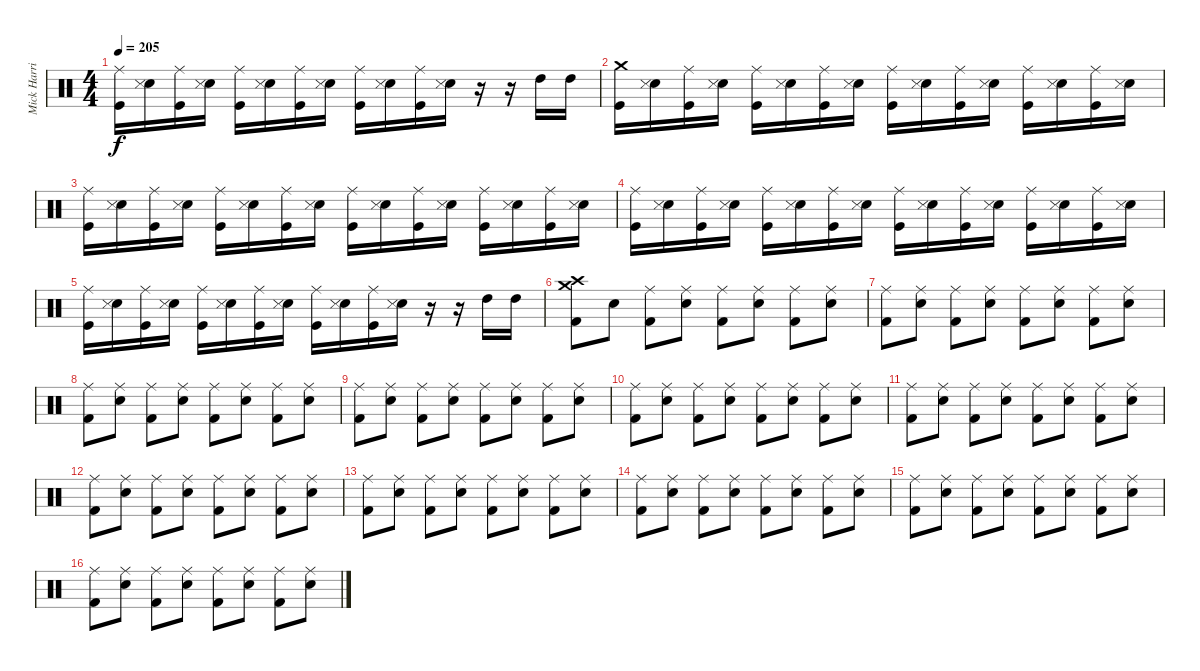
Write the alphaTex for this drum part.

\track ("Mick Harris (Drums)" "Mick Harri") {instrument percussion}
\staff {score}
\articulation defaults
\ts (4 4)
\tempo 205
\clef neutral
\ks c
("Kick (hit)" "Ride (middle)").16{dy f} ("Electric Snare (hit)" "Snare (side stick) 3").16 ("Kick (hit)" "Ride (middle)").16 ("Electric Snare (hit)" "Snare (side stick) 3").16 ("Kick (hit)" "Ride (middle)").16 ("Electric Snare (hit)" "Snare (side stick) 3").16 ("Kick (hit)" "Ride (middle)").16 ("Electric Snare (hit)" "Snare (side stick) 3").16 ("Kick (hit)" "Ride (middle)").16 ("Electric Snare (hit)" "Snare (side stick) 3").16 ("Kick (hit)" "Ride (middle)").16 ("Electric Snare (hit)" "Snare (side stick) 3").16 r.16 r.16 "High Tom (hit)".16 "High Tom (hit)".16 |
("Kick (hit)" "Crash medium (hit)").16 ("Electric Snare (hit)" "Snare (side stick) 3").16 ("Kick (hit)" "Ride (middle)").16 ("Electric Snare (hit)" "Snare (side stick) 3").16 ("Kick (hit)" "Ride (middle)").16 ("Electric Snare (hit)" "Snare (side stick) 3").16 ("Kick (hit)" "Ride (middle)").16 ("Electric Snare (hit)" "Snare (side stick) 3").16 ("Kick (hit)" "Ride (middle)").16 ("Electric Snare (hit)" "Snare (side stick) 3").16 ("Kick (hit)" "Ride (middle)").16 ("Electric Snare (hit)" "Snare (side stick) 3").16 ("Kick (hit)" "Ride (middle)").16 ("Electric Snare (hit)" "Snare (side stick) 3").16 ("Kick (hit)" "Ride (middle)").16 ("Electric Snare (hit)" "Snare (side stick) 3").16 |
("Kick (hit)" "Ride (middle)").16 ("Electric Snare (hit)" "Snare (side stick) 3").16 ("Kick (hit)" "Ride (middle)").16 ("Electric Snare (hit)" "Snare (side stick) 3").16 ("Kick (hit)" "Ride (middle)").16 ("Electric Snare (hit)" "Snare (side stick) 3").16 ("Kick (hit)" "Ride (middle)").16 ("Electric Snare (hit)" "Snare (side stick) 3").16 ("Kick (hit)" "Ride (middle)").16 ("Electric Snare (hit)" "Snare (side stick) 3").16 ("Kick (hit)" "Ride (middle)").16 ("Electric Snare (hit)" "Snare (side stick) 3").16 ("Kick (hit)" "Ride (middle)").16 ("Electric Snare (hit)" "Snare (side stick) 3").16 ("Kick (hit)" "Ride (middle)").16 ("Electric Snare (hit)" "Snare (side stick) 3").16 |
("Kick (hit)" "Ride (middle)").16 ("Electric Snare (hit)" "Snare (side stick) 3").16 ("Kick (hit)" "Ride (middle)").16 ("Electric Snare (hit)" "Snare (side stick) 3").16 ("Kick (hit)" "Ride (middle)").16 ("Electric Snare (hit)" "Snare (side stick) 3").16 ("Kick (hit)" "Ride (middle)").16 ("Electric Snare (hit)" "Snare (side stick) 3").16 ("Kick (hit)" "Ride (middle)").16 ("Electric Snare (hit)" "Snare (side stick) 3").16 ("Kick (hit)" "Ride (middle)").16 ("Electric Snare (hit)" "Snare (side stick) 3").16 ("Kick (hit)" "Ride (middle)").16 ("Electric Snare (hit)" "Snare (side stick) 3").16 ("Kick (hit)" "Ride (middle)").16 ("Electric Snare (hit)" "Snare (side stick) 3").16 |
("Kick (hit)" "Ride (middle)").16 ("Electric Snare (hit)" "Snare (side stick) 3").16 ("Kick (hit)" "Ride (middle)").16 ("Electric Snare (hit)" "Snare (side stick) 3").16 ("Kick (hit)" "Ride (middle)").16 ("Electric Snare (hit)" "Snare (side stick) 3").16 ("Kick (hit)" "Ride (middle)").16 ("Electric Snare (hit)" "Snare (side stick) 3").16 ("Kick (hit)" "Ride (middle)").16 ("Electric Snare (hit)" "Snare (side stick) 3").16 ("Kick (hit)" "Ride (middle)").16 ("Electric Snare (hit)" "Snare (side stick) 3").16 r.16 r.16 "High Tom (hit)".16 "High Tom (hit)".16 |
("Kick (hit) 2" "Crash high (hit)" "Crash medium (hit)").8 "Electric Snare (hit)".8 ("Kick (hit) 2" "Ride (middle)").8 ("Electric Snare (hit)" "Ride (middle)").8 ("Kick (hit) 2" "Ride (middle)").8 ("Electric Snare (hit)" "Ride (middle)").8 ("Kick (hit) 2" "Ride (middle)").8 ("Electric Snare (hit)" "Ride (middle)").8 |
("Kick (hit) 2" "Ride (middle)").8 ("Electric Snare (hit)" "Ride (middle)").8 ("Kick (hit) 2" "Ride (middle)").8 ("Electric Snare (hit)" "Ride (middle)").8 ("Kick (hit) 2" "Ride (middle)").8 ("Electric Snare (hit)" "Ride (middle)").8 ("Kick (hit) 2" "Ride (middle)").8 ("Electric Snare (hit)" "Ride (middle)").8 |
("Kick (hit) 2" "Ride (middle)").8 ("Electric Snare (hit)" "Ride (middle)").8 ("Kick (hit) 2" "Ride (middle)").8 ("Electric Snare (hit)" "Ride (middle)").8 ("Kick (hit) 2" "Ride (middle)").8 ("Electric Snare (hit)" "Ride (middle)").8 ("Kick (hit) 2" "Ride (middle)").8 ("Electric Snare (hit)" "Ride (middle)").8 |
("Kick (hit) 2" "Ride (middle)").8 ("Electric Snare (hit)" "Ride (middle)").8 ("Kick (hit) 2" "Ride (middle)").8 ("Electric Snare (hit)" "Ride (middle)").8 ("Kick (hit) 2" "Ride (middle)").8 ("Electric Snare (hit)" "Ride (middle)").8 ("Kick (hit) 2" "Ride (middle)").8 ("Electric Snare (hit)" "Ride (middle)").8 |
("Kick (hit) 2" "Ride (middle)").8 ("Electric Snare (hit)" "Ride (middle)").8 ("Kick (hit) 2" "Ride (middle)").8 ("Electric Snare (hit)" "Ride (middle)").8 ("Kick (hit) 2" "Ride (middle)").8 ("Electric Snare (hit)" "Ride (middle)").8 ("Kick (hit) 2" "Ride (middle)").8 ("Electric Snare (hit)" "Ride (middle)").8 |
("Kick (hit) 2" "Ride (middle)").8 ("Electric Snare (hit)" "Ride (middle)").8 ("Kick (hit) 2" "Ride (middle)").8 ("Electric Snare (hit)" "Ride (middle)").8 ("Kick (hit) 2" "Ride (middle)").8 ("Electric Snare (hit)" "Ride (middle)").8 ("Kick (hit) 2" "Ride (middle)").8 ("Electric Snare (hit)" "Ride (middle)").8 |
("Kick (hit) 2" "Ride (middle)").8 ("Electric Snare (hit)" "Ride (middle)").8 ("Kick (hit) 2" "Ride (middle)").8 ("Electric Snare (hit)" "Ride (middle)").8 ("Kick (hit) 2" "Ride (middle)").8 ("Electric Snare (hit)" "Ride (middle)").8 ("Kick (hit) 2" "Ride (middle)").8 ("Electric Snare (hit)" "Ride (middle)").8 |
("Kick (hit) 2" "Ride (middle)").8 ("Electric Snare (hit)" "Ride (middle)").8 ("Kick (hit) 2" "Ride (middle)").8 ("Electric Snare (hit)" "Ride (middle)").8 ("Kick (hit) 2" "Ride (middle)").8 ("Electric Snare (hit)" "Ride (middle)").8 ("Kick (hit) 2" "Ride (middle)").8 ("Electric Snare (hit)" "Ride (middle)").8 |
("Kick (hit) 2" "Ride (middle)").8 ("Electric Snare (hit)" "Ride (middle)").8 ("Kick (hit) 2" "Ride (middle)").8 ("Electric Snare (hit)" "Ride (middle)").8 ("Kick (hit) 2" "Ride (middle)").8 ("Electric Snare (hit)" "Ride (middle)").8 ("Kick (hit) 2" "Ride (middle)").8 ("Electric Snare (hit)" "Ride (middle)").8 |
("Kick (hit) 2" "Ride (middle)").8 ("Electric Snare (hit)" "Ride (middle)").8 ("Kick (hit) 2" "Ride (middle)").8 ("Electric Snare (hit)" "Ride (middle)").8 ("Kick (hit) 2" "Ride (middle)").8 ("Electric Snare (hit)" "Ride (middle)").8 ("Kick (hit) 2" "Ride (middle)").8 ("Electric Snare (hit)" "Ride (middle)").8 |
("Kick (hit) 2" "Ride (middle)").8 ("Electric Snare (hit)" "Ride (middle)").8 ("Kick (hit) 2" "Ride (middle)").8 ("Electric Snare (hit)" "Ride (middle)").8 ("Kick (hit) 2" "Ride (middle)").8 ("Electric Snare (hit)" "Ride (middle)").8 ("Kick (hit) 2" "Ride (middle)").8 ("Electric Snare (hit)" "Ride (middle)").8
